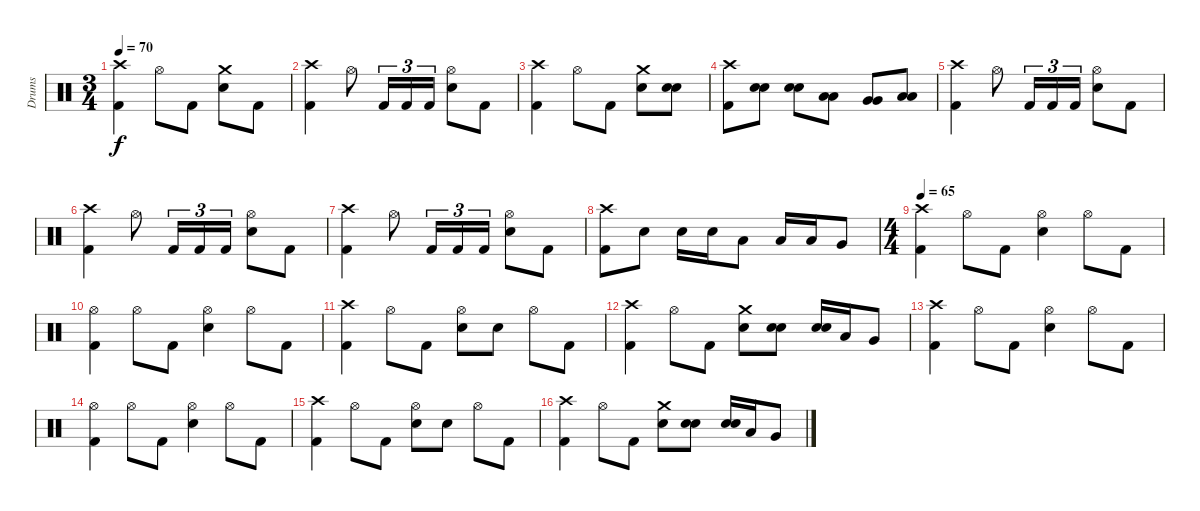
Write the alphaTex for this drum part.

\track ("Drums" "Drums") {instrument percussion}
\staff {score}
\articulation defaults
\ts (3 4)
\tempo 70
\clef neutral
\ks c
("Crash high (hit)" "Kick (hit) 2").4{dy f} "Hi-Hat (open)".8 "Kick (hit) 2".8 ("Crash medium (hit)" "Electric Snare (hit)").8 "Kick (hit) 2".8 |
("Crash high (hit)" "Kick (hit) 2").4 "Hi-Hat (open)".8 "Kick (hit) 2".16{tu (3 2)} "Kick (hit) 2".16{tu (3 2)} "Kick (hit) 2".16{tu (3 2)} ("Hi-Hat (open)" "Electric Snare (hit)").8 "Kick (hit) 2".8 |
("Crash high (hit)" "Kick (hit) 2").4 "Hi-Hat (open)".8 "Kick (hit) 2".8 ("Crash medium (hit)" "Electric Snare (hit)").8 ("Electric Snare (hit)" "Electric Snare (hit)").8{bu 60} |
("Crash high (hit)" "Kick (hit) 2").8 ("Electric Snare (hit)" "Electric Snare (hit)").8{bu 60} ("Electric Snare (hit)" "Electric Snare (hit)").8{bu 60} ("Low Tom (hit)" "Low Tom (hit)").8{bu 60} ("Very Low Tom (hit)" "Very Low Tom (hit)").8{bu 60} ("Low Floor Tom (hit)" "Low Floor Tom (hit)").8{bu 60} |
("Crash high (hit)" "Kick (hit) 2").4 "Hi-Hat (open)".8 "Kick (hit) 2".16{tu (3 2)} "Kick (hit) 2".16{tu (3 2)} "Kick (hit) 2".16{tu (3 2)} ("Hi-Hat (open)" "Electric Snare (hit)").8 "Kick (hit) 2".8 |
("Crash high (hit)" "Kick (hit) 2").4 "Hi-Hat (open)".8 "Kick (hit) 2".16{tu (3 2)} "Kick (hit) 2".16{tu (3 2)} "Kick (hit) 2".16{tu (3 2)} ("Hi-Hat (open)" "Electric Snare (hit)").8 "Kick (hit) 2".8 |
("Crash high (hit)" "Kick (hit) 2").4 "Hi-Hat (open)".8 "Kick (hit) 2".16{tu (3 2)} "Kick (hit) 2".16{tu (3 2)} "Kick (hit) 2".16{tu (3 2)} ("Hi-Hat (open)" "Electric Snare (hit)").8 "Kick (hit) 2".8 |
("Crash high (hit)" "Kick (hit) 2").8 "Electric Snare (hit)".8 "Electric Snare (hit)".16 "Electric Snare (hit)".16 "Low Tom (hit)".8 "Low Tom (hit)".16 "Low Tom (hit)".16 "Very Low Tom (hit)".8 |
\ts (4 4)
\tempo 65
("Crash high (hit)" "Kick (hit) 2").4 "Hi-Hat (open)".8 "Kick (hit) 2".8 ("Hi-Hat (open)" "Electric Snare (hit)").4 "Hi-Hat (open)".8 "Kick (hit) 2".8 |
("Hi-Hat (open)" "Kick (hit) 2").4 "Hi-Hat (open)".8 "Kick (hit) 2".8 ("Hi-Hat (open)" "Electric Snare (hit)").4 "Hi-Hat (open)".8 "Kick (hit) 2".8 |
("Crash high (hit)" "Kick (hit) 2").4 "Hi-Hat (open)".8 "Kick (hit) 2".8 ("Hi-Hat (open)" "Electric Snare (hit)").8 "Electric Snare (hit)".8 "Hi-Hat (open)".8 "Kick (hit) 2".8 |
("Crash high (hit)" "Kick (hit) 2").4 "Hi-Hat (open)".8 "Kick (hit) 2".8 ("Crash medium (hit)" "Electric Snare (hit)").8 ("Electric Snare (hit)" "Electric Snare (hit)").8{bu 60} ("Electric Snare (hit)" "Electric Snare (hit)").16{bu 60} "Low Tom (hit)".16 "Very Low Tom (hit)".8 |
("Crash high (hit)" "Kick (hit) 2").4 "Hi-Hat (open)".8 "Kick (hit) 2".8 ("Hi-Hat (open)" "Electric Snare (hit)").4 "Hi-Hat (open)".8 "Kick (hit) 2".8 |
("Hi-Hat (open)" "Kick (hit) 2").4 "Hi-Hat (open)".8 "Kick (hit) 2".8 ("Hi-Hat (open)" "Electric Snare (hit)").4 "Hi-Hat (open)".8 "Kick (hit) 2".8 |
("Crash high (hit)" "Kick (hit) 2").4 "Hi-Hat (open)".8 "Kick (hit) 2".8 ("Hi-Hat (open)" "Electric Snare (hit)").8 "Electric Snare (hit)".8 "Hi-Hat (open)".8 "Kick (hit) 2".8 |
("Crash high (hit)" "Kick (hit) 2").4 "Hi-Hat (open)".8 "Kick (hit) 2".8 ("Crash medium (hit)" "Electric Snare (hit)").8 ("Electric Snare (hit)" "Electric Snare (hit)").8{bu 60} ("Electric Snare (hit)" "Electric Snare (hit)").16{bu 60} "Low Tom (hit)".16 "Very Low Tom (hit)".8
